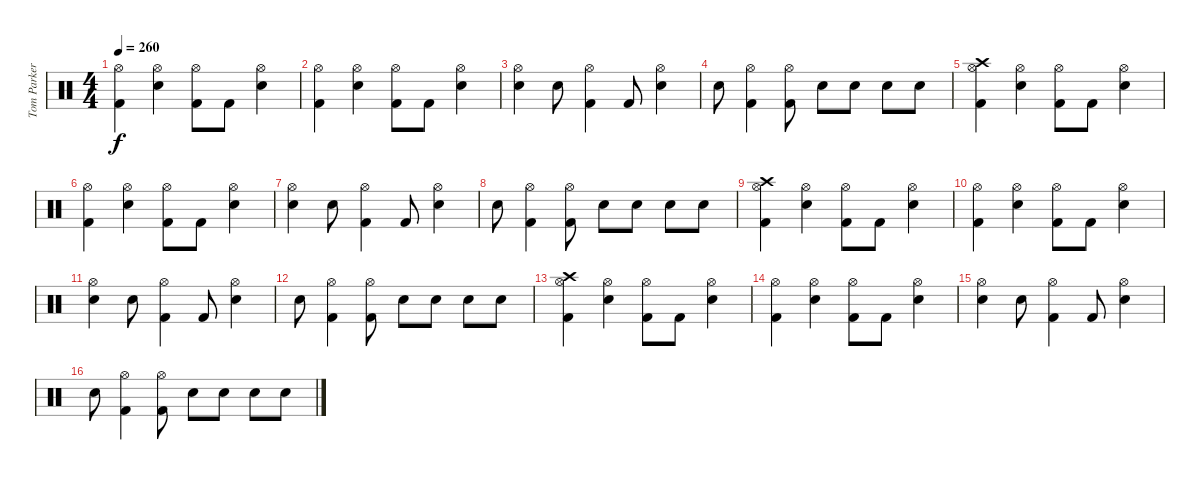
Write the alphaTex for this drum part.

\track ("Tom Parker" "Tom Parker") {instrument percussion}
\staff {score}
\articulation defaults
\ts (4 4)
\tempo 260
\clef neutral
\ks c
("Hi-Hat (open)" "Kick (hit) 2").4{dy f} ("Hi-Hat (open)" "Electric Snare (hit)").4 ("Hi-Hat (open)" "Kick (hit) 2").8 "Kick (hit) 2".8 ("Hi-Hat (open)" "Electric Snare (hit)").4 |
("Hi-Hat (open)" "Kick (hit) 2").4 ("Hi-Hat (open)" "Electric Snare (hit)").4 ("Hi-Hat (open)" "Kick (hit) 2").8 "Kick (hit) 2".8 ("Hi-Hat (open)" "Electric Snare (hit)").4 |
("Hi-Hat (open)" "Electric Snare (hit)").4 "Electric Snare (hit)".8 ("Hi-Hat (open)" "Kick (hit) 2").4 "Kick (hit) 2".8 ("Hi-Hat (open)" "Electric Snare (hit)").4 |
"Electric Snare (hit)".8 ("Hi-Hat (open)" "Kick (hit) 2").4 ("Hi-Hat (open)" "Kick (hit) 2").8 "Electric Snare (hit)".8 "Electric Snare (hit)".8 "Electric Snare (hit)".8 "Electric Snare (hit)".8 |
("Crash high (hit)" "Hi-Hat (open)" "Kick (hit) 2").4 ("Hi-Hat (open)" "Electric Snare (hit)").4 ("Hi-Hat (open)" "Kick (hit) 2").8 "Kick (hit) 2".8 ("Hi-Hat (open)" "Electric Snare (hit)").4 |
("Hi-Hat (open)" "Kick (hit) 2").4 ("Hi-Hat (open)" "Electric Snare (hit)").4 ("Hi-Hat (open)" "Kick (hit) 2").8 "Kick (hit) 2".8 ("Hi-Hat (open)" "Electric Snare (hit)").4 |
("Hi-Hat (open)" "Electric Snare (hit)").4 "Electric Snare (hit)".8 ("Hi-Hat (open)" "Kick (hit) 2").4 "Kick (hit) 2".8 ("Hi-Hat (open)" "Electric Snare (hit)").4 |
"Electric Snare (hit)".8 ("Hi-Hat (open)" "Kick (hit) 2").4 ("Hi-Hat (open)" "Kick (hit) 2").8 "Electric Snare (hit)".8 "Electric Snare (hit)".8 "Electric Snare (hit)".8 "Electric Snare (hit)".8 |
("Crash high (hit)" "Hi-Hat (open)" "Kick (hit) 2").4 ("Hi-Hat (open)" "Electric Snare (hit)").4 ("Hi-Hat (open)" "Kick (hit) 2").8 "Kick (hit) 2".8 ("Hi-Hat (open)" "Electric Snare (hit)").4 |
("Hi-Hat (open)" "Kick (hit) 2").4 ("Hi-Hat (open)" "Electric Snare (hit)").4 ("Hi-Hat (open)" "Kick (hit) 2").8 "Kick (hit) 2".8 ("Hi-Hat (open)" "Electric Snare (hit)").4 |
("Hi-Hat (open)" "Electric Snare (hit)").4 "Electric Snare (hit)".8 ("Hi-Hat (open)" "Kick (hit) 2").4 "Kick (hit) 2".8 ("Hi-Hat (open)" "Electric Snare (hit)").4 |
"Electric Snare (hit)".8 ("Hi-Hat (open)" "Kick (hit) 2").4 ("Hi-Hat (open)" "Kick (hit) 2").8 "Electric Snare (hit)".8 "Electric Snare (hit)".8 "Electric Snare (hit)".8 "Electric Snare (hit)".8 |
("Crash high (hit)" "Hi-Hat (open)" "Kick (hit) 2").4 ("Hi-Hat (open)" "Electric Snare (hit)").4 ("Hi-Hat (open)" "Kick (hit) 2").8 "Kick (hit) 2".8 ("Hi-Hat (open)" "Electric Snare (hit)").4 |
("Hi-Hat (open)" "Kick (hit) 2").4 ("Hi-Hat (open)" "Electric Snare (hit)").4 ("Hi-Hat (open)" "Kick (hit) 2").8 "Kick (hit) 2".8 ("Hi-Hat (open)" "Electric Snare (hit)").4 |
("Hi-Hat (open)" "Electric Snare (hit)").4 "Electric Snare (hit)".8 ("Hi-Hat (open)" "Kick (hit) 2").4 "Kick (hit) 2".8 ("Hi-Hat (open)" "Electric Snare (hit)").4 |
"Electric Snare (hit)".8 ("Hi-Hat (open)" "Kick (hit) 2").4 ("Hi-Hat (open)" "Kick (hit) 2").8 "Electric Snare (hit)".8 "Electric Snare (hit)".8 "Electric Snare (hit)".8 "Electric Snare (hit)".8
